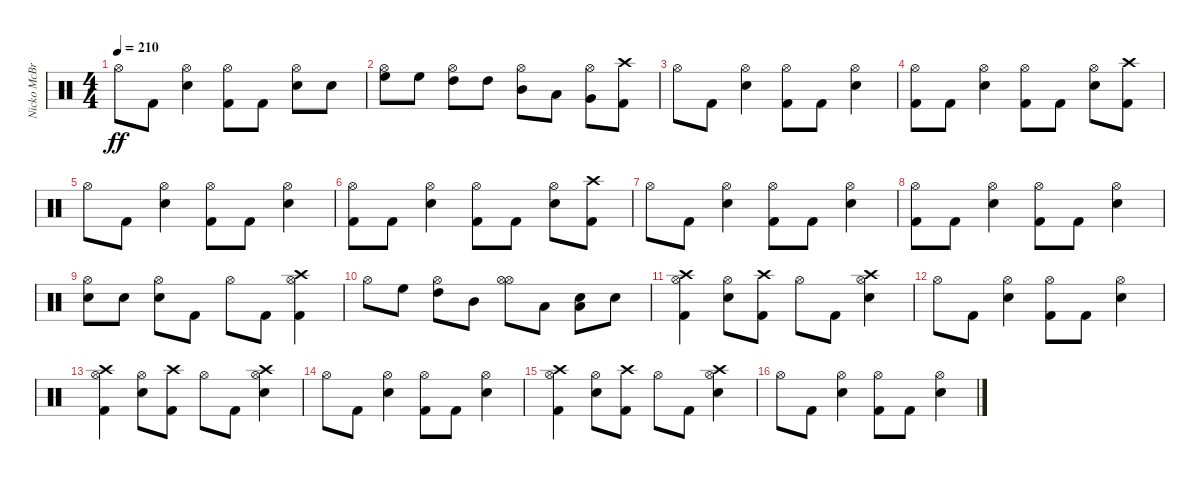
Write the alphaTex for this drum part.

\track ("Nicko McBrain" "Nicko McBr") {instrument percussion}
\staff {score}
\articulation defaults
\ts (4 4)
\tempo 210
\clef neutral
\ks c "Hi-Hat (open)".8{dy ff} "Kick (hit) 2".8
("Snare (hit) 2" "Hi-Hat (open)").4 ("Kick (hit) 2" "Hi-Hat (open)").8 "Kick (hit) 2".8 ("Snare (hit) 2" "Hi-Hat (open)").8 "Snare (hit) 2".8 |
("Hi-Hat (open)" "High Floor Tom (hit)").8 "High Floor Tom (hit)".8 ("Hi-Hat (open)" "High Tom (hit)").8 "High Tom (hit)".8 ("Hi-Hat (open)" "Mid Tom (hit)").8 "Low Tom (hit)".8 ("Very Low Tom (hit)" "Hi-Hat (open)").8 ("Kick (hit) 2" "Crash high (hit)").8 |
"Hi-Hat (open)".8 "Kick (hit) 2".8 ("Snare (hit) 2" "Hi-Hat (open)").4 ("Kick (hit) 2" "Hi-Hat (open)").8 "Kick (hit) 2".8 ("Snare (hit) 2" "Hi-Hat (open)").4 |
("Kick (hit) 2" "Hi-Hat (open)").8 "Kick (hit) 2".8 ("Snare (hit) 2" "Hi-Hat (open)").4 ("Kick (hit) 2" "Hi-Hat (open)").8 "Kick (hit) 2".8 ("Snare (hit) 2" "Hi-Hat (open)").8 ("Kick (hit) 2" "Crash high (hit)").8 |
"Hi-Hat (open)".8 "Kick (hit) 2".8 ("Snare (hit) 2" "Hi-Hat (open)").4 ("Kick (hit) 2" "Hi-Hat (open)").8 "Kick (hit) 2".8 ("Snare (hit) 2" "Hi-Hat (open)").4 |
("Kick (hit) 2" "Hi-Hat (open)").8 "Kick (hit) 2".8 ("Snare (hit) 2" "Hi-Hat (open)").4 ("Kick (hit) 2" "Hi-Hat (open)").8 "Kick (hit) 2".8 ("Snare (hit) 2" "Hi-Hat (open)").8 ("Kick (hit) 2" "Crash high (hit)").8 |
"Hi-Hat (open)".8 "Kick (hit) 2".8 ("Snare (hit) 2" "Hi-Hat (open)").4 ("Kick (hit) 2" "Hi-Hat (open)").8 "Kick (hit) 2".8 ("Snare (hit) 2" "Hi-Hat (open)").4 |
("Kick (hit) 2" "Hi-Hat (open)").8 "Kick (hit) 2".8 ("Snare (hit) 2" "Hi-Hat (open)").4 ("Kick (hit) 2" "Hi-Hat (open)").8 "Kick (hit) 2".8 ("Snare (hit) 2" "Hi-Hat (open)").4 |
("Snare (hit) 2" "Hi-Hat (open)").8 "Snare (hit) 2".8 ("Snare (hit) 2" "Hi-Hat (open)").8 "Kick (hit) 2".8 "Hi-Hat (open)".8 "Kick (hit) 2".8 ("Kick (hit) 2" "Hi-Hat (open)" "Crash high (hit)").4 |
"Hi-Hat (open)".8 "High Floor Tom (hit)".8 ("Hi-Hat (open)" "High Tom (hit)").8 "Mid Tom (hit)".8 ("Hi-Hat (open)" "Hi-Hat (open)").8 "Low Tom (hit)".8 ("Snare (hit) 2" "Low Tom (hit)").8 "Snare (hit) 2".8 |
("Kick (hit) 2" "Hi-Hat (open)" "Crash high (hit)").4 ("Snare (hit) 2" "Hi-Hat (open)").8 ("Kick (hit) 2" "Crash high (hit)").8 "Hi-Hat (open)".8 "Kick (hit) 2".8 ("Snare (hit) 2" "Hi-Hat (open)" "Crash high (hit)").4 |
"Hi-Hat (open)".8 "Kick (hit) 2".8 ("Snare (hit) 2" "Hi-Hat (open)").4 ("Kick (hit) 2" "Hi-Hat (open)").8 "Kick (hit) 2".8 ("Snare (hit) 2" "Hi-Hat (open)").4 |
("Kick (hit) 2" "Hi-Hat (open)" "Crash high (hit)").4 ("Snare (hit) 2" "Hi-Hat (open)").8 ("Kick (hit) 2" "Crash high (hit)").8 "Hi-Hat (open)".8 "Kick (hit) 2".8 ("Snare (hit) 2" "Hi-Hat (open)" "Crash high (hit)").4 |
"Hi-Hat (open)".8 "Kick (hit) 2".8 ("Snare (hit) 2" "Hi-Hat (open)").4 ("Kick (hit) 2" "Hi-Hat (open)").8 "Kick (hit) 2".8 ("Snare (hit) 2" "Hi-Hat (open)").4 |
("Kick (hit) 2" "Hi-Hat (open)" "Crash high (hit)").4 ("Snare (hit) 2" "Hi-Hat (open)").8 ("Kick (hit) 2" "Crash high (hit)").8 "Hi-Hat (open)".8 "Kick (hit) 2".8 ("Snare (hit) 2" "Hi-Hat (open)" "Crash high (hit)").4 |
"Hi-Hat (open)".8 "Kick (hit) 2".8 ("Snare (hit) 2" "Hi-Hat (open)").4 ("Kick (hit) 2" "Hi-Hat (open)").8 "Kick (hit) 2".8 ("Snare (hit) 2" "Hi-Hat (open)").4
